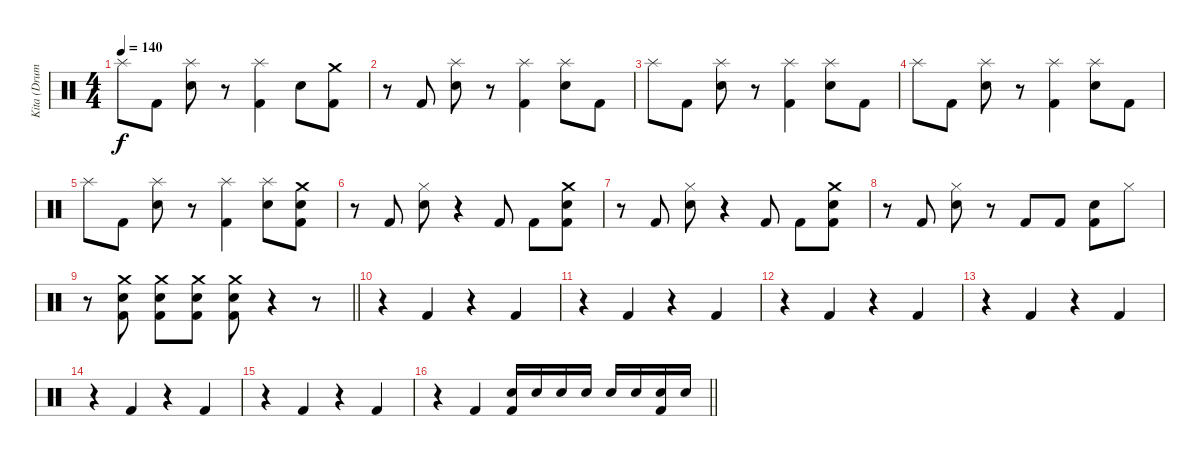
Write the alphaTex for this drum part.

\track ("Kita (Drums)" "Kita (Drum") {instrument percussion}
\staff {score}
\articulation defaults
\ts (4 4)
\tempo 140
\clef neutral
\ks c "Splash (hit)".8{dy f} "Kick (hit) 2".8
("Splash (hit)" "Snare (hit) 2").8 r.8 ("Splash (hit)" "Kick (hit) 2").4 "Snare (hit) 2".8 ("Crash medium (hit)" "Kick (hit) 2").8 |
r.8 "Kick (hit) 2".8 ("Splash (hit)" "Snare (hit) 2").8 r.8 ("Splash (hit)" "Kick (hit) 2").4 ("Splash (hit)" "Snare (hit) 2").8 "Kick (hit) 2".8 |
"Splash (hit)".8 "Kick (hit) 2".8 ("Splash (hit)" "Snare (hit) 2").8 r.8 ("Splash (hit)" "Kick (hit) 2").4 ("Splash (hit)" "Snare (hit) 2").8 "Kick (hit) 2".8 |
"Splash (hit)".8 "Kick (hit) 2".8 ("Splash (hit)" "Snare (hit) 2").8 r.8 ("Splash (hit)" "Kick (hit) 2").4 ("Splash (hit)" "Snare (hit) 2").8 "Kick (hit) 2".8 |
"Splash (hit)".8 "Kick (hit) 2".8 ("Splash (hit)" "Snare (hit) 2").8 r.8 ("Splash (hit)" "Kick (hit) 2").4 ("Splash (hit)" "Snare (hit) 2").8 ("Crash medium (hit)" "Snare (hit) 2" "Kick (hit) 2").8 |
r.8 "Kick (hit) 2".8 ("Hi-Hat (closed)" "Snare (hit) 2").8 r.4 "Kick (hit) 2".8 "Kick (hit) 2".8 ("Crash medium (hit)" "Snare (hit) 2" "Kick (hit) 2").8 |
r.8 "Kick (hit) 2".8 ("Hi-Hat (closed)" "Snare (hit) 2").8 r.4 "Kick (hit) 2".8 "Kick (hit) 2".8 ("Crash medium (hit)" "Snare (hit) 2" "Kick (hit) 2").8 |
r.8 "Kick (hit) 2".8 ("Hi-Hat (closed)" "Snare (hit) 2").8 r.8 "Kick (hit) 2".8 "Kick (hit) 2".8 ("Snare (hit) 2" "Kick (hit) 2").8 "Hi-Hat (closed)".8 |
\barLineRight lightlight
r.8 ("Crash medium (hit)" "Snare (hit) 2" "Kick (hit) 2").8 ("Crash medium (hit)" "Snare (hit) 2" "Kick (hit) 2").8 ("Crash medium (hit)" "Snare (hit) 2" "Kick (hit) 2").8 ("Crash medium (hit)" "Snare (hit) 2" "Kick (hit) 2").8 r.4 r.8 |
r.4 "Kick (hit) 2".4 r.4 "Kick (hit) 2".4 |
r.4 "Kick (hit) 2".4 r.4 "Kick (hit) 2".4 |
r.4 "Kick (hit) 2".4 r.4 "Kick (hit) 2".4 |
r.4 "Kick (hit) 2".4 r.4 "Kick (hit) 2".4 |
r.4 "Kick (hit) 2".4 r.4 "Kick (hit) 2".4 |
r.4 "Kick (hit) 2".4 r.4 "Kick (hit) 2".4 |
\barLineRight lightlight
r.4 "Kick (hit) 2".4 ("Snare (hit) 2" "Kick (hit) 2").16 "Snare (hit) 2".16 "Snare (hit) 2".16 "Snare (hit) 2".16 "Snare (hit) 2".16 "Snare (hit) 2".16 ("Snare (hit) 2" "Kick (hit) 2").16 "Snare (hit) 2".16
